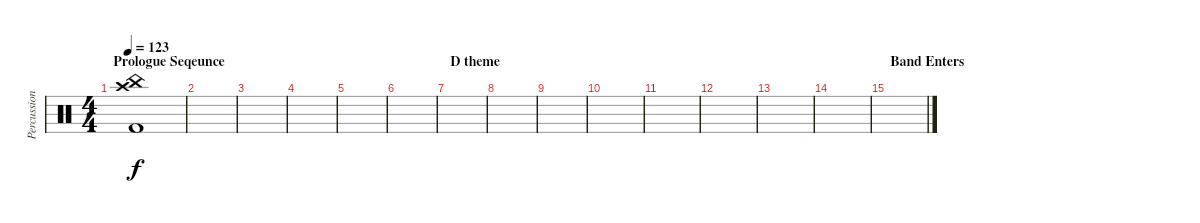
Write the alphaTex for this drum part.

\track ("Percussion" "Percussion") {instrument percussion}
\staff {score}
\articulation defaults
\ts (4 4)
\section ("" "Prologue Seqeunce")
\tempo 123
\clef neutral
\ks c
("China (hit)" "Crash high (hit)" "Kick (hit) 2").1{dy f} |
|
|
|
|
|
\section ("" "D theme")
|
|
|
|
|
|
|
|
\section ("" "Band Enters")
